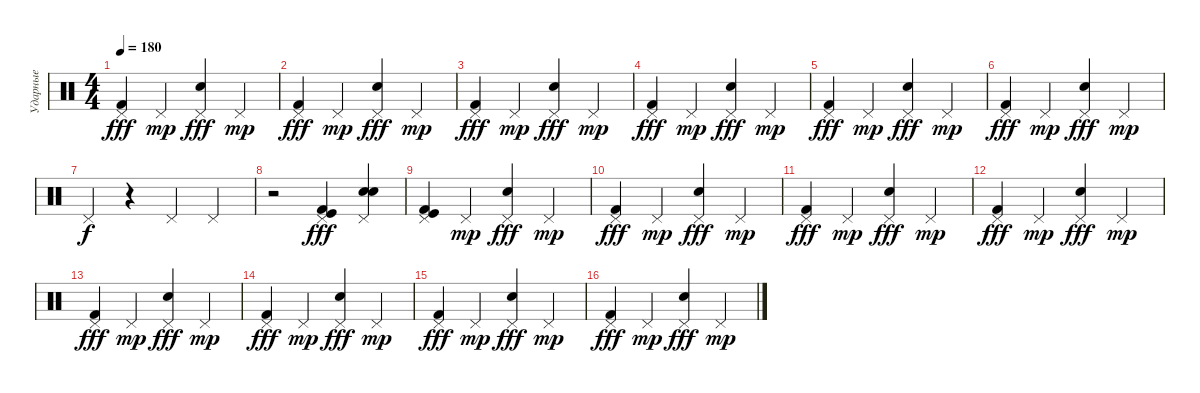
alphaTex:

\track ("Ударные" "Ударные") {instrument percussion}
\staff {score}
\articulation defaults
\ts (4 4)
\tempo 180
\clef neutral
\ks c
("Pedal Hi-Hat (hit)" "Kick (hit) 2").4{dy fff} "Pedal Hi-Hat (hit)".4{dy mp} ("Pedal Hi-Hat (hit)" "Electric Snare (hit)").4{dy fff} "Pedal Hi-Hat (hit)".4{dy mp} |
("Pedal Hi-Hat (hit)" "Kick (hit) 2").4{dy fff} "Pedal Hi-Hat (hit)".4{dy mp} ("Pedal Hi-Hat (hit)" "Electric Snare (hit)").4{dy fff} "Pedal Hi-Hat (hit)".4{dy mp} |
("Pedal Hi-Hat (hit)" "Kick (hit) 2").4{dy fff} "Pedal Hi-Hat (hit)".4{dy mp} ("Pedal Hi-Hat (hit)" "Electric Snare (hit)").4{dy fff} "Pedal Hi-Hat (hit)".4{dy mp} |
("Pedal Hi-Hat (hit)" "Kick (hit) 2").4{dy fff} "Pedal Hi-Hat (hit)".4{dy mp} ("Pedal Hi-Hat (hit)" "Electric Snare (hit)").4{dy fff} "Pedal Hi-Hat (hit)".4{dy mp} |
("Pedal Hi-Hat (hit)" "Kick (hit) 2").4{dy fff} "Pedal Hi-Hat (hit)".4{dy mp} ("Pedal Hi-Hat (hit)" "Electric Snare (hit)").4{dy fff} "Pedal Hi-Hat (hit)".4{dy mp} |
("Pedal Hi-Hat (hit)" "Kick (hit) 2").4{dy fff} "Pedal Hi-Hat (hit)".4{dy mp} ("Pedal Hi-Hat (hit)" "Electric Snare (hit)").4{dy fff} "Pedal Hi-Hat (hit)".4{dy mp} |
"Pedal Hi-Hat (hit)".4{dy f} r.4 "Pedal Hi-Hat (hit)".4 "Pedal Hi-Hat (hit)".4 |
r.2 ("Pedal Hi-Hat (hit)" "Kick (hit) 2" "Kick (hit)").4{dy fff} ("Pedal Hi-Hat (hit)" "Electric Snare (hit)" "Snare (hit) 2").4 |
("Pedal Hi-Hat (hit)" "Kick (hit) 2" "Kick (hit)").4 "Pedal Hi-Hat (hit)".4{dy mp} ("Pedal Hi-Hat (hit)" "Electric Snare (hit)").4{dy fff} "Pedal Hi-Hat (hit)".4{dy mp} |
("Pedal Hi-Hat (hit)" "Kick (hit) 2").4{dy fff} "Pedal Hi-Hat (hit)".4{dy mp} ("Pedal Hi-Hat (hit)" "Electric Snare (hit)").4{dy fff} "Pedal Hi-Hat (hit)".4{dy mp} |
("Pedal Hi-Hat (hit)" "Kick (hit) 2").4{dy fff} "Pedal Hi-Hat (hit)".4{dy mp} ("Pedal Hi-Hat (hit)" "Electric Snare (hit)").4{dy fff} "Pedal Hi-Hat (hit)".4{dy mp} |
("Pedal Hi-Hat (hit)" "Kick (hit) 2").4{dy fff} "Pedal Hi-Hat (hit)".4{dy mp} ("Pedal Hi-Hat (hit)" "Electric Snare (hit)").4{dy fff} "Pedal Hi-Hat (hit)".4{dy mp} |
("Pedal Hi-Hat (hit)" "Kick (hit) 2").4{dy fff} "Pedal Hi-Hat (hit)".4{dy mp} ("Pedal Hi-Hat (hit)" "Electric Snare (hit)").4{dy fff} "Pedal Hi-Hat (hit)".4{dy mp} |
("Pedal Hi-Hat (hit)" "Kick (hit) 2").4{dy fff} "Pedal Hi-Hat (hit)".4{dy mp} ("Pedal Hi-Hat (hit)" "Electric Snare (hit)").4{dy fff} "Pedal Hi-Hat (hit)".4{dy mp} |
("Pedal Hi-Hat (hit)" "Kick (hit) 2").4{dy fff} "Pedal Hi-Hat (hit)".4{dy mp} ("Pedal Hi-Hat (hit)" "Electric Snare (hit)").4{dy fff} "Pedal Hi-Hat (hit)".4{dy mp} |
("Pedal Hi-Hat (hit)" "Kick (hit) 2").4{dy fff} "Pedal Hi-Hat (hit)".4{dy mp} ("Pedal Hi-Hat (hit)" "Electric Snare (hit)").4{dy fff} "Pedal Hi-Hat (hit)".4{dy mp}
